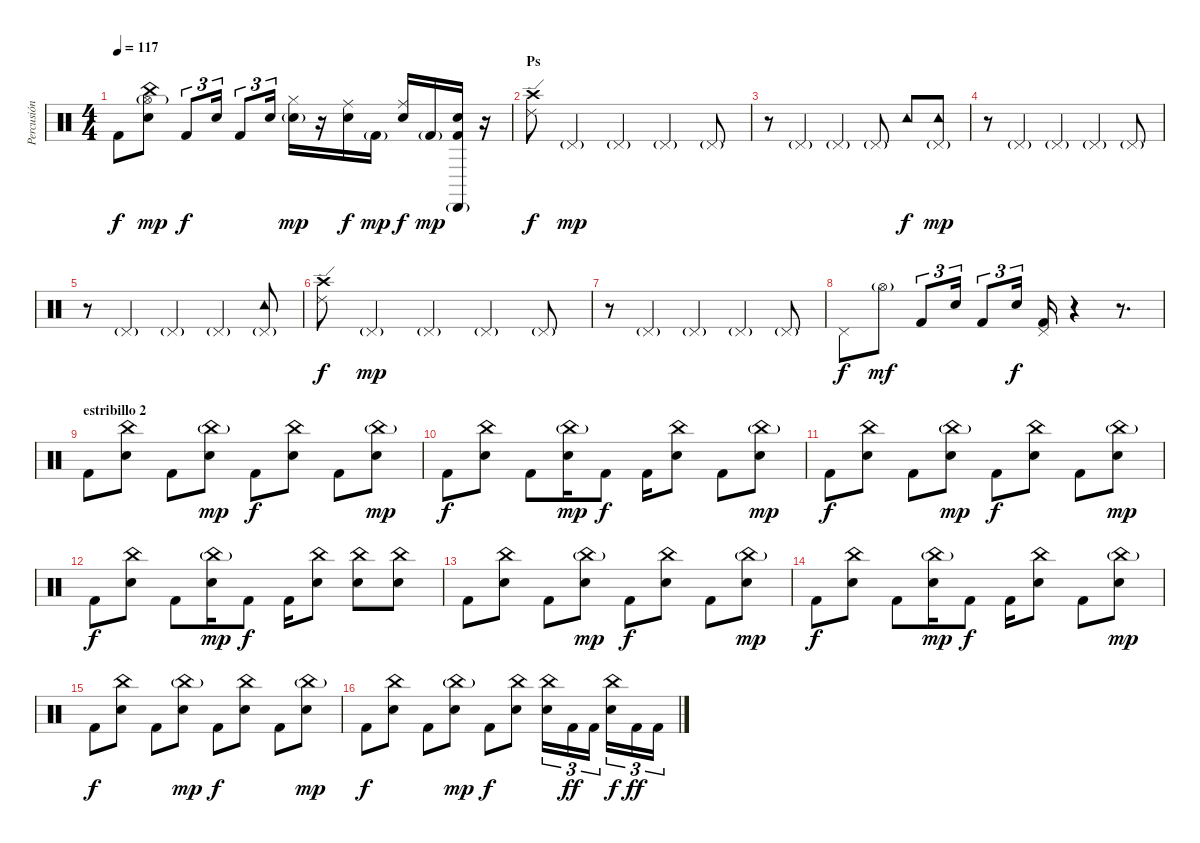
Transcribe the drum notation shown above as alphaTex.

\track ("Percusión" "Percusión") {instrument percussion}
\staff {score}
\articulation defaults
\ts (4 4)
\tempo 117
\clef neutral
\ks c "Kick (hit) 2".8{dy f}
("Snare (hit) 2" "China (hit)" "Hi-Hat (open)"{g}).8{dy mp} "Kick (hit) 2".8{tu (3 2) dy f} "Snare (hit) 2".16{tu (3 2)} "Kick (hit) 2".8{tu (3 2)} "Snare (hit) 2".16{tu (3 2)} ("Snare (hit) 2"{g} "Hi-Hat (closed)").16{dy mp} r.16 ("Snare (hit) 2" "Ride (middle)").16{dy f} "Kick (hit) 2"{g}.16{dy mp} ("Snare (hit) 2" "Ride (middle)").16{dy f} "Kick (hit) 2"{g}.16{dy mp} ("Snare (hit) 2" "Kick (hit) 2" "Cabasa (hit)"{g}).16 r.16 |
\section ("" "Ps")
("Ride (edge) 2" "Crash high (hit)").8{dy f} "Pedal Hi-Hat (hit)"{g}.4{dy mp} "Pedal Hi-Hat (hit)"{g}.4 "Pedal Hi-Hat (hit)"{g}.4 "Pedal Hi-Hat (hit)"{g}.8 |
r.8 "Pedal Hi-Hat (hit)"{g}.4 "Pedal Hi-Hat (hit)"{g}.4 "Pedal Hi-Hat (hit)"{g}.8 "Tambourine (hit)".8{dy f} ("Pedal Hi-Hat (hit)"{g} "Tambourine (hit)").8{dy mp} |
r.8 "Pedal Hi-Hat (hit)"{g}.4 "Pedal Hi-Hat (hit)"{g}.4 "Pedal Hi-Hat (hit)"{g}.4 "Pedal Hi-Hat (hit)"{g}.8 |
r.8 "Pedal Hi-Hat (hit)"{g}.4 "Pedal Hi-Hat (hit)"{g}.4 "Pedal Hi-Hat (hit)"{g}.4 ("Pedal Hi-Hat (hit)"{g} "Tambourine (hit)").8 |
("Ride (edge) 2" "Crash high (hit)").8{dy f} "Pedal Hi-Hat (hit)"{g}.4{dy mp} "Pedal Hi-Hat (hit)"{g}.4 "Pedal Hi-Hat (hit)"{g}.4 "Pedal Hi-Hat (hit)"{g}.8 |
r.8 "Pedal Hi-Hat (hit)"{g}.4 "Pedal Hi-Hat (hit)"{g}.4 "Pedal Hi-Hat (hit)"{g}.4 "Pedal Hi-Hat (hit)"{g}.8 |
"Pedal Hi-Hat (hit)".8{dy f} "Hi-Hat (open)"{g}.8{dy mf} "Kick (hit) 2".8{tu (3 2)} "Snare (hit) 2".16{tu (3 2)} "Kick (hit) 2".8{tu (3 2)} "Snare (hit) 2".16{tu (3 2) dy f} ("Kick (hit) 2" "Pedal Hi-Hat (hit)").16 r.4 r.8{d} |
\section ("" "estribillo 2")
"Kick (hit) 2".8 ("Snare (hit) 2" "China (hit)").8 "Kick (hit) 2".8 ("Snare (hit) 2" "China (hit)"{g}).8{dy mp} "Kick (hit) 2".8{dy f} ("Snare (hit) 2" "China (hit)").8 "Kick (hit) 2".8 ("Snare (hit) 2" "China (hit)"{g}).8{dy mp} |
"Kick (hit) 2".8{dy f} ("Snare (hit) 2" "China (hit)").8 "Kick (hit) 2".8 ("Snare (hit) 2" "China (hit)"{g}).16{dy mp} "Kick (hit) 2".8{dy f} "Kick (hit) 2".16 ("Snare (hit) 2" "China (hit)").8 "Kick (hit) 2".8 ("Snare (hit) 2" "China (hit)"{g}).8{dy mp} |
"Kick (hit) 2".8{dy f} ("Snare (hit) 2" "China (hit)").8 "Kick (hit) 2".8 ("Snare (hit) 2" "China (hit)"{g}).8{dy mp} "Kick (hit) 2".8{dy f} ("Snare (hit) 2" "China (hit)").8 "Kick (hit) 2".8 ("Snare (hit) 2" "China (hit)"{g}).8{dy mp} |
"Kick (hit) 2".8{dy f} ("Snare (hit) 2" "China (hit)").8 "Kick (hit) 2".8 ("Snare (hit) 2" "China (hit)"{g}).16{dy mp} "Kick (hit) 2".8{dy f} "Kick (hit) 2".16 ("Snare (hit) 2" "China (hit)").8 ("Snare (hit) 2" "China (hit)").8 ("Snare (hit) 2" "China (hit)").8 |
"Kick (hit) 2".8 ("Snare (hit) 2" "China (hit)").8 "Kick (hit) 2".8 ("Snare (hit) 2" "China (hit)"{g}).8{dy mp} "Kick (hit) 2".8{dy f} ("Snare (hit) 2" "China (hit)").8 "Kick (hit) 2".8 ("Snare (hit) 2" "China (hit)"{g}).8{dy mp} |
"Kick (hit) 2".8{dy f} ("Snare (hit) 2" "China (hit)").8 "Kick (hit) 2".8 ("Snare (hit) 2" "China (hit)"{g}).16{dy mp} "Kick (hit) 2".8{dy f} "Kick (hit) 2".16 ("Snare (hit) 2" "China (hit)").8 "Kick (hit) 2".8 ("Snare (hit) 2" "China (hit)"{g}).8{dy mp} |
"Kick (hit) 2".8{dy f} ("Snare (hit) 2" "China (hit)").8 "Kick (hit) 2".8 ("Snare (hit) 2" "China (hit)"{g}).8{dy mp} "Kick (hit) 2".8{dy f} ("Snare (hit) 2" "China (hit)").8 "Kick (hit) 2".8 ("Snare (hit) 2" "China (hit)"{g}).8{dy mp} |
"Kick (hit) 2".8{dy f} ("Snare (hit) 2" "China (hit)").8 "Kick (hit) 2".8 ("Snare (hit) 2" "China (hit)"{g}).8{dy mp} "Kick (hit) 2".8{dy f} ("Snare (hit) 2" "China (hit)").8 ("Snare (hit) 2" "China (hit)").16{tu (3 2)} "Kick (hit) 2".16{tu (3 2) dy ff} "Kick (hit) 2".16{tu (3 2) beam splitsecondary} ("Snare (hit) 2" "China (hit)").16{tu (3 2) dy f} "Kick (hit) 2".16{tu (3 2) dy ff} "Kick (hit) 2".16{tu (3 2)}
